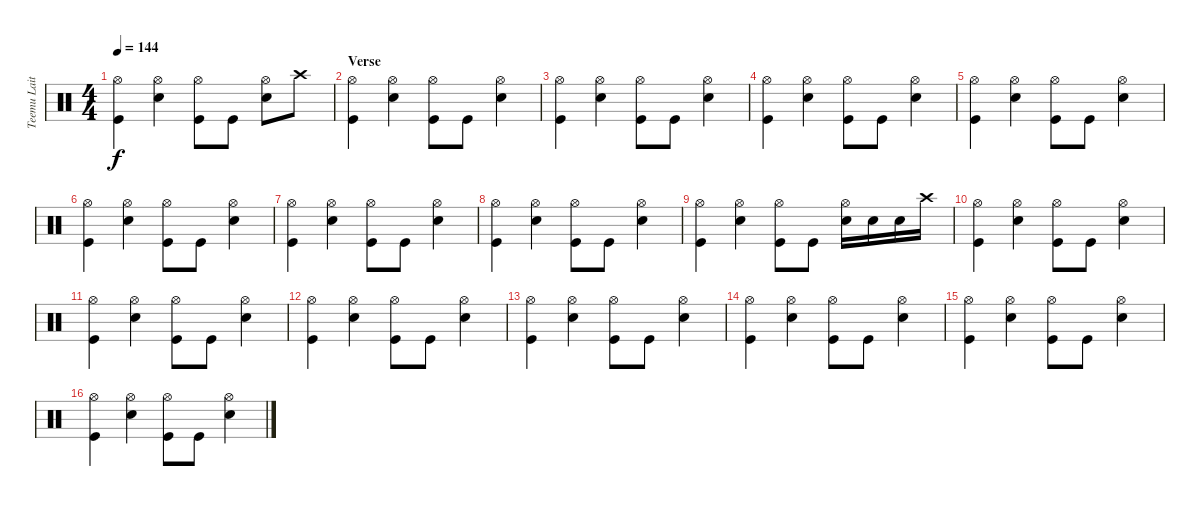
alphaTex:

\track ("Teemu Laitinen" "Teemu Lait") {instrument percussion}
\staff {score}
\articulation defaults
\ts (4 4)
\tempo 144
\clef neutral
\ks c
("Hi-Hat (open)" "Kick (hit)").4{dy f} ("Hi-Hat (open)" "Electric Snare (hit)").4 ("Hi-Hat (open)" "Kick (hit)").8 "Kick (hit)".8 ("Hi-Hat (open)" "Electric Snare (hit)").8 "Crash high (hit)".8 |
\section ("" "Verse")
("Hi-Hat (open)" "Kick (hit)").4 ("Hi-Hat (open)" "Electric Snare (hit)").4 ("Hi-Hat (open)" "Kick (hit)").8 "Kick (hit)".8 ("Hi-Hat (open)" "Electric Snare (hit)").4 |
("Hi-Hat (open)" "Kick (hit)").4 ("Hi-Hat (open)" "Electric Snare (hit)").4 ("Hi-Hat (open)" "Kick (hit)").8 "Kick (hit)".8 ("Hi-Hat (open)" "Electric Snare (hit)").4 |
("Hi-Hat (open)" "Kick (hit)").4 ("Hi-Hat (open)" "Electric Snare (hit)").4 ("Hi-Hat (open)" "Kick (hit)").8 "Kick (hit)".8 ("Hi-Hat (open)" "Electric Snare (hit)").4 |
("Hi-Hat (open)" "Kick (hit)").4 ("Hi-Hat (open)" "Electric Snare (hit)").4 ("Hi-Hat (open)" "Kick (hit)").8 "Kick (hit)".8 ("Hi-Hat (open)" "Electric Snare (hit)").4 |
("Hi-Hat (open)" "Kick (hit)").4 ("Hi-Hat (open)" "Electric Snare (hit)").4 ("Hi-Hat (open)" "Kick (hit)").8 "Kick (hit)".8 ("Hi-Hat (open)" "Electric Snare (hit)").4 |
("Hi-Hat (open)" "Kick (hit)").4 ("Hi-Hat (open)" "Electric Snare (hit)").4 ("Hi-Hat (open)" "Kick (hit)").8 "Kick (hit)".8 ("Hi-Hat (open)" "Electric Snare (hit)").4 |
("Hi-Hat (open)" "Kick (hit)").4 ("Hi-Hat (open)" "Electric Snare (hit)").4 ("Hi-Hat (open)" "Kick (hit)").8 "Kick (hit)".8 ("Hi-Hat (open)" "Electric Snare (hit)").4 |
("Hi-Hat (open)" "Kick (hit)").4 ("Hi-Hat (open)" "Electric Snare (hit)").4 ("Hi-Hat (open)" "Kick (hit)").8 "Kick (hit)".8 ("Hi-Hat (open)" "Electric Snare (hit)").16 "Electric Snare (hit)".16 "Electric Snare (hit)".16 "Crash high (hit)".16 |
("Hi-Hat (open)" "Kick (hit)").4 ("Hi-Hat (open)" "Electric Snare (hit)").4 ("Hi-Hat (open)" "Kick (hit)").8 "Kick (hit)".8 ("Hi-Hat (open)" "Electric Snare (hit)").4 |
("Hi-Hat (open)" "Kick (hit)").4 ("Hi-Hat (open)" "Electric Snare (hit)").4 ("Hi-Hat (open)" "Kick (hit)").8 "Kick (hit)".8 ("Hi-Hat (open)" "Electric Snare (hit)").4 |
("Hi-Hat (open)" "Kick (hit)").4 ("Hi-Hat (open)" "Electric Snare (hit)").4 ("Hi-Hat (open)" "Kick (hit)").8 "Kick (hit)".8 ("Hi-Hat (open)" "Electric Snare (hit)").4 |
("Hi-Hat (open)" "Kick (hit)").4 ("Hi-Hat (open)" "Electric Snare (hit)").4 ("Hi-Hat (open)" "Kick (hit)").8 "Kick (hit)".8 ("Hi-Hat (open)" "Electric Snare (hit)").4 |
("Hi-Hat (open)" "Kick (hit)").4 ("Hi-Hat (open)" "Electric Snare (hit)").4 ("Hi-Hat (open)" "Kick (hit)").8 "Kick (hit)".8 ("Hi-Hat (open)" "Electric Snare (hit)").4 |
("Hi-Hat (open)" "Kick (hit)").4 ("Hi-Hat (open)" "Electric Snare (hit)").4 ("Hi-Hat (open)" "Kick (hit)").8 "Kick (hit)".8 ("Hi-Hat (open)" "Electric Snare (hit)").4 |
("Hi-Hat (open)" "Kick (hit)").4 ("Hi-Hat (open)" "Electric Snare (hit)").4 ("Hi-Hat (open)" "Kick (hit)").8 "Kick (hit)".8 ("Hi-Hat (open)" "Electric Snare (hit)").4
